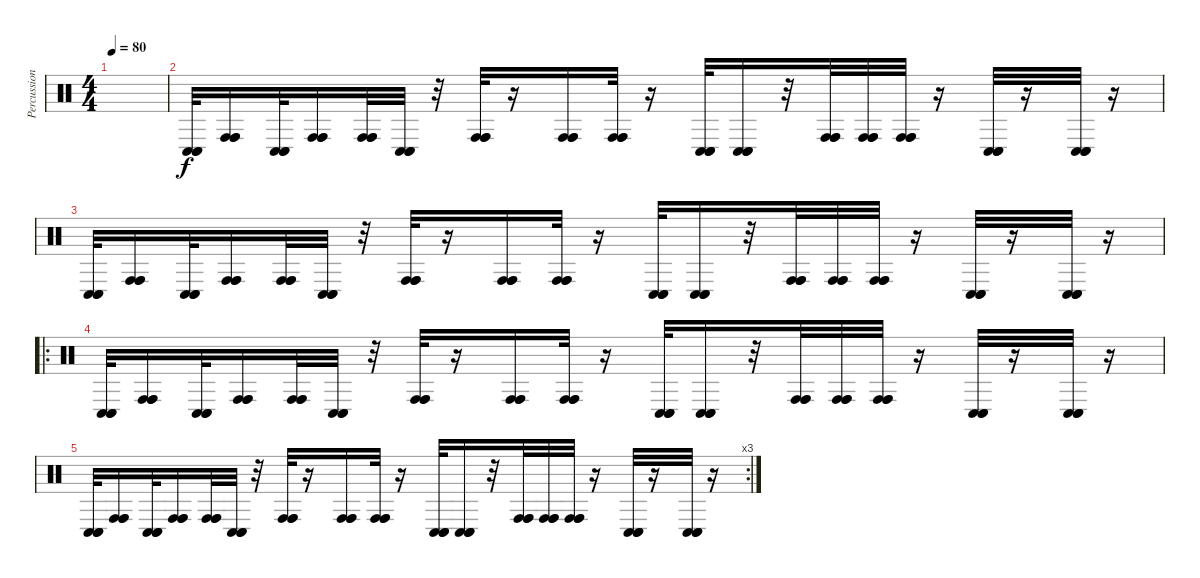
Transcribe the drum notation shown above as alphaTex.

\track ("Percussion" "Percussion") {instrument percussion}
\staff {score}
\articulation defaults
\ts (4 4)
\tempo 80
\clef neutral
\ks c
|
("Conga low (hit)" "Conga low (hit)" "Conga low (hit)").32 ("Conga high (hit)" "Conga high (hit)" "Conga high (hit)").16 ("Conga low (hit)" "Conga low (hit)" "Conga low (hit)").32 ("Conga high (hit)" "Conga high (hit)" "Conga high (hit)").16 ("Conga high (hit)" "Conga high (hit)" "Conga high (hit)").32 ("Conga low (hit)" "Conga low (hit)" "Conga low (hit)").32 r.32 ("Conga high (hit)" "Conga high (hit)" "Conga high (hit)").32 r.16 ("Conga high (hit)" "Conga high (hit)" "Conga high (hit)").16 ("Conga high (hit)" "Conga high (hit)" "Conga high (hit)").32 r.16 ("Conga low (hit)" "Conga low (hit)" "Conga low (hit)").32 ("Conga low (hit)" "Conga low (hit)" "Conga low (hit)").16 r.32 ("Conga high (hit)" "Conga high (hit)" "Conga high (hit)").32 ("Conga high (hit)" "Conga high (hit)" "Conga high (hit)").32 ("Conga high (hit)" "Conga high (hit)" "Conga high (hit)").32 r.16 ("Conga low (hit)" "Conga low (hit)" "Conga low (hit)").32 r.16 ("Conga low (hit)" "Conga low (hit)" "Conga low (hit)").32 r.16 |
("Conga low (hit)" "Conga low (hit)" "Conga low (hit)").32 ("Conga high (hit)" "Conga high (hit)" "Conga high (hit)").16 ("Conga low (hit)" "Conga low (hit)" "Conga low (hit)").32 ("Conga high (hit)" "Conga high (hit)" "Conga high (hit)").16 ("Conga high (hit)" "Conga high (hit)" "Conga high (hit)").32 ("Conga low (hit)" "Conga low (hit)" "Conga low (hit)").32 r.32 ("Conga high (hit)" "Conga high (hit)" "Conga high (hit)").32 r.16 ("Conga high (hit)" "Conga high (hit)" "Conga high (hit)").16 ("Conga high (hit)" "Conga high (hit)" "Conga high (hit)").32 r.16 ("Conga low (hit)" "Conga low (hit)" "Conga low (hit)").32 ("Conga low (hit)" "Conga low (hit)" "Conga low (hit)").16 r.32 ("Conga high (hit)" "Conga high (hit)" "Conga high (hit)").32 ("Conga high (hit)" "Conga high (hit)" "Conga high (hit)").32 ("Conga high (hit)" "Conga high (hit)" "Conga high (hit)").32 r.16 ("Conga low (hit)" "Conga low (hit)" "Conga low (hit)").32 r.16 ("Conga low (hit)" "Conga low (hit)" "Conga low (hit)").32 r.16 |
\ro
("Conga low (hit)" "Conga low (hit)" "Conga low (hit)").32 ("Conga high (hit)" "Conga high (hit)" "Conga high (hit)").16 ("Conga low (hit)" "Conga low (hit)" "Conga low (hit)").32 ("Conga high (hit)" "Conga high (hit)" "Conga high (hit)").16 ("Conga high (hit)" "Conga high (hit)" "Conga high (hit)").32 ("Conga low (hit)" "Conga low (hit)" "Conga low (hit)").32 r.32 ("Conga high (hit)" "Conga high (hit)" "Conga high (hit)").32 r.16 ("Conga high (hit)" "Conga high (hit)" "Conga high (hit)").16 ("Conga high (hit)" "Conga high (hit)" "Conga high (hit)").32 r.16 ("Conga low (hit)" "Conga low (hit)" "Conga low (hit)").32 ("Conga low (hit)" "Conga low (hit)" "Conga low (hit)").16 r.32 ("Conga high (hit)" "Conga high (hit)" "Conga high (hit)").32 ("Conga high (hit)" "Conga high (hit)" "Conga high (hit)").32 ("Conga high (hit)" "Conga high (hit)" "Conga high (hit)").32 r.16 ("Conga low (hit)" "Conga low (hit)" "Conga low (hit)").32 r.16 ("Conga low (hit)" "Conga low (hit)" "Conga low (hit)").32 r.16 |
\rc 3
("Conga low (hit)" "Conga low (hit)" "Conga low (hit)").32 ("Conga high (hit)" "Conga high (hit)" "Conga high (hit)").16 ("Conga low (hit)" "Conga low (hit)" "Conga low (hit)").32 ("Conga high (hit)" "Conga high (hit)" "Conga high (hit)").16 ("Conga high (hit)" "Conga high (hit)" "Conga high (hit)").32 ("Conga low (hit)" "Conga low (hit)" "Conga low (hit)").32 r.32 ("Conga high (hit)" "Conga high (hit)" "Conga high (hit)").32 r.16 ("Conga high (hit)" "Conga high (hit)" "Conga high (hit)").16 ("Conga high (hit)" "Conga high (hit)" "Conga high (hit)").32 r.16 ("Conga low (hit)" "Conga low (hit)" "Conga low (hit)").32 ("Conga low (hit)" "Conga low (hit)" "Conga low (hit)").16 r.32 ("Conga high (hit)" "Conga high (hit)" "Conga high (hit)").32 ("Conga high (hit)" "Conga high (hit)" "Conga high (hit)").32 ("Conga high (hit)" "Conga high (hit)" "Conga high (hit)").32 r.16 ("Conga low (hit)" "Conga low (hit)" "Conga low (hit)").32 r.16 ("Conga low (hit)" "Conga low (hit)" "Conga low (hit)").32 r.16
